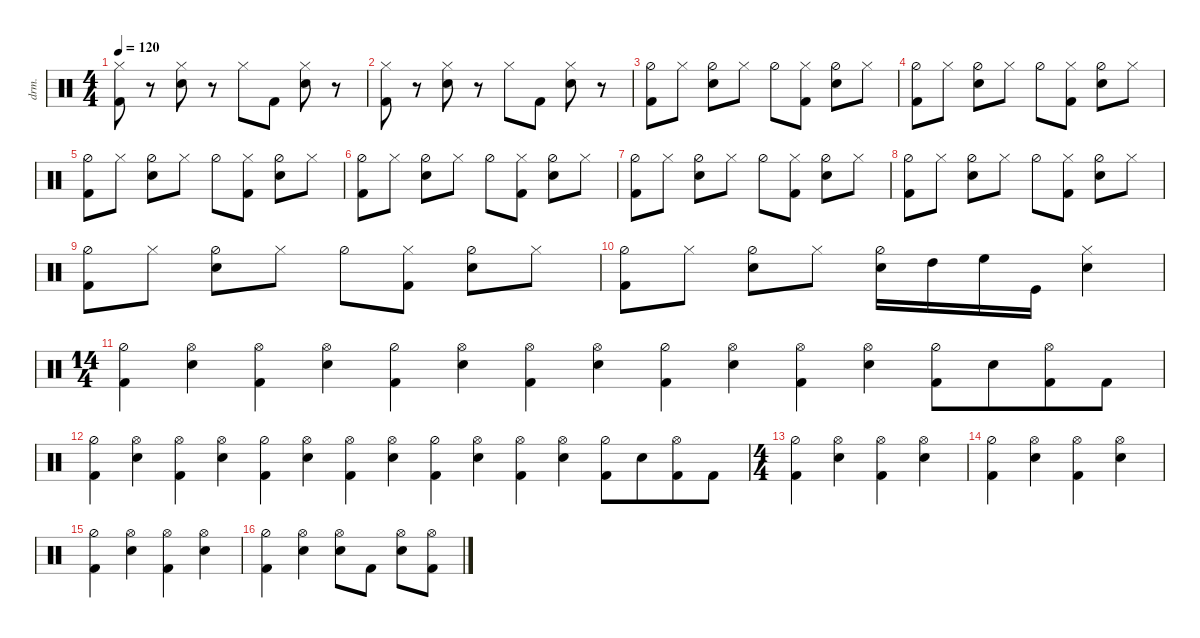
\defaultSystemsLayout 4
\hideDynamics
\bracketExtendMode nobrackets
\otherSystemsTrackNameOrientation horizontal
\track ("Drumkit" "drm.") {instrument percussion}
\staff {score}
\articulation defaults
\ts (4 4)
\tempo 120
\clef neutral
\ks c
("Kick (hit) 2" "Hi-Hat (closed)").8{dy mf beam Down} r.8{beam Down} ("Hi-Hat (closed)" "Snare (hit) 2").8{beam Down} r.8{beam Down} "Hi-Hat (closed)".8{beam Down} "Kick (hit) 2".8{beam Down} ("Hi-Hat (closed)" "Snare (hit) 2").8{beam Down} r.8{beam Down} |
("Kick (hit) 2" "Hi-Hat (closed)").8{beam Down} r.8{beam Down} ("Hi-Hat (closed)" "Snare (hit) 2").8{beam Down} r.8{beam Down} "Hi-Hat (closed)".8{beam Down} "Kick (hit) 2".8{beam Down} ("Hi-Hat (closed)" "Snare (hit) 2").8{beam Down} r.8{beam Down} |
("Kick (hit) 2" "Hi-Hat (half)").8{beam Down} "Hi-Hat (closed)".8{beam Down} ("Hi-Hat (half)" "Snare (hit) 2").8{beam Down} "Hi-Hat (closed)".8{beam Down} "Hi-Hat (half)".8{beam Down} ("Kick (hit) 2" "Hi-Hat (closed)").8{beam Down} ("Hi-Hat (half)" "Snare (hit) 2").8{beam Down} "Hi-Hat (closed)".8{beam Down} |
("Kick (hit) 2" "Hi-Hat (half)").8{beam Down} "Hi-Hat (closed)".8{beam Down} ("Hi-Hat (half)" "Snare (hit) 2").8{beam Down} "Hi-Hat (closed)".8{beam Down} "Hi-Hat (half)".8{beam Down} ("Kick (hit) 2" "Hi-Hat (closed)").8{beam Down} ("Hi-Hat (half)" "Snare (hit) 2").8{beam Down} "Hi-Hat (closed)".8{beam Down} |
("Kick (hit) 2" "Hi-Hat (half)").8{beam Down} "Hi-Hat (closed)".8{beam Down} ("Hi-Hat (half)" "Snare (hit) 2").8{beam Down} "Hi-Hat (closed)".8{beam Down} "Hi-Hat (half)".8{beam Down} ("Kick (hit) 2" "Hi-Hat (closed)").8{beam Down} ("Hi-Hat (half)" "Snare (hit) 2").8{beam Down} "Hi-Hat (closed)".8{beam Down} |
("Kick (hit) 2" "Hi-Hat (half)").8{beam Down} "Hi-Hat (closed)".8{beam Down} ("Hi-Hat (half)" "Snare (hit) 2").8{beam Down} "Hi-Hat (closed)".8{beam Down} "Hi-Hat (half)".8{beam Down} ("Kick (hit) 2" "Hi-Hat (closed)").8{beam Down} ("Hi-Hat (half)" "Snare (hit) 2").8{beam Down} "Hi-Hat (closed)".8{beam Down} |
("Kick (hit) 2" "Hi-Hat (half)").8{beam Down} "Hi-Hat (closed)".8{beam Down} ("Hi-Hat (half)" "Snare (hit) 2").8{beam Down} "Hi-Hat (closed)".8{beam Down} "Hi-Hat (half)".8{beam Down} ("Kick (hit) 2" "Hi-Hat (closed)").8{beam Down} ("Hi-Hat (half)" "Snare (hit) 2").8{beam Down} "Hi-Hat (closed)".8{beam Down} |
("Kick (hit) 2" "Hi-Hat (half)").8{beam Down} "Hi-Hat (closed)".8{beam Down} ("Hi-Hat (half)" "Snare (hit) 2").8{beam Down} "Hi-Hat (closed)".8{beam Down} "Hi-Hat (half)".8{beam Down} ("Kick (hit) 2" "Hi-Hat (closed)").8{beam Down} ("Hi-Hat (half)" "Snare (hit) 2").8{beam Down} "Hi-Hat (closed)".8{beam Down} |
("Kick (hit) 2" "Hi-Hat (half)").8{beam Down} "Hi-Hat (closed)".8{beam Down} ("Hi-Hat (half)" "Snare (hit) 2").8{beam Down} "Hi-Hat (closed)".8{beam Down} "Hi-Hat (half)".8{beam Down} ("Kick (hit) 2" "Hi-Hat (closed)").8{beam Down} ("Hi-Hat (half)" "Snare (hit) 2").8{beam Down} "Hi-Hat (closed)".8{beam Down} |
("Kick (hit) 2" "Hi-Hat (half)").8{beam Down} "Hi-Hat (closed)".8{beam Down} ("Hi-Hat (half)" "Snare (hit) 2").8{beam Down} "Hi-Hat (closed)".8{beam Down} ("Hi-Hat (half)" "Snare (hit) 2").16{beam Down} "High Tom (hit)".16{beam Down} "High Floor Tom (hit)".16{beam Down} "Kick (hit)".16{beam Down} ("Hi-Hat (closed)" "Snare (hit) 2").4{beam Down} |
\ts (14 4)
\beaming (8 4 4 4 4 4 4 4)
("Kick (hit) 2" "Hi-Hat (half)").4{beam Down} ("Snare (hit) 2" "Hi-Hat (open)").4{beam Down} ("Kick (hit) 2" "Hi-Hat (open)").4{beam Down} ("Snare (hit) 2" "Hi-Hat (open)").4{beam Down} ("Kick (hit) 2" "Hi-Hat (half)").4{beam Down} ("Snare (hit) 2" "Hi-Hat (open)").4{beam Down} ("Kick (hit) 2" "Hi-Hat (open)").4{beam Down} ("Snare (hit) 2" "Hi-Hat (open)").4{beam Down} ("Kick (hit) 2" "Hi-Hat (half)").4{beam Down} ("Snare (hit) 2" "Hi-Hat (open)").4{beam Down} ("Kick (hit) 2" "Hi-Hat (open)").4{beam Down} ("Snare (hit) 2" "Hi-Hat (open)").4{beam Down} ("Kick (hit) 2" "Hi-Hat (half)").8{beam Down} "Snare (hit) 2".8{beam Down} ("Kick (hit) 2" "Hi-Hat (open)").8{beam Down} "Kick (hit) 2".8{beam Down} |
("Kick (hit) 2" "Hi-Hat (half)").4{beam Down} ("Snare (hit) 2" "Hi-Hat (open)").4{beam Down} ("Kick (hit) 2" "Hi-Hat (open)").4{beam Down} ("Snare (hit) 2" "Hi-Hat (open)").4{beam Down} ("Kick (hit) 2" "Hi-Hat (half)").4{beam Down} ("Snare (hit) 2" "Hi-Hat (open)").4{beam Down} ("Kick (hit) 2" "Hi-Hat (open)").4{beam Down} ("Snare (hit) 2" "Hi-Hat (open)").4{beam Down} ("Kick (hit) 2" "Hi-Hat (half)").4{beam Down} ("Snare (hit) 2" "Hi-Hat (open)").4{beam Down} ("Kick (hit) 2" "Hi-Hat (open)").4{beam Down} ("Snare (hit) 2" "Hi-Hat (open)").4{beam Down} ("Kick (hit) 2" "Hi-Hat (half)").8{beam Down} "Snare (hit) 2".8{beam Down} ("Kick (hit) 2" "Hi-Hat (open)").8{beam Down} "Kick (hit) 2".8{beam Down} |
\ts (4 4)
\beaming (8 2 2 2 2)
("Kick (hit) 2" "Hi-Hat (half)").4{beam Down} ("Snare (hit) 2" "Hi-Hat (open)").4{beam Down} ("Kick (hit) 2" "Hi-Hat (open)").4{beam Down} ("Snare (hit) 2" "Hi-Hat (open)").4{beam Down} |
("Kick (hit) 2" "Hi-Hat (half)").4{beam Down} ("Snare (hit) 2" "Hi-Hat (open)").4{beam Down} ("Kick (hit) 2" "Hi-Hat (open)").4{beam Down} ("Snare (hit) 2" "Hi-Hat (open)").4{beam Down} |
("Kick (hit) 2" "Hi-Hat (half)").4{beam Down} ("Snare (hit) 2" "Hi-Hat (open)").4{beam Down} ("Kick (hit) 2" "Hi-Hat (open)").4{beam Down} ("Snare (hit) 2" "Hi-Hat (open)").4{beam Down} |
("Hi-Hat (half)" "Kick (hit) 2").4{beam Down} ("Hi-Hat (open)" "Snare (hit) 2").4{beam Down} ("Hi-Hat (open)" "Snare (hit) 2").8{beam Down} "Kick (hit) 2".8{beam Down} ("Snare (hit) 2" "Hi-Hat (open)").8{beam Down} ("Hi-Hat (open)" "Kick (hit) 2").8{beam Down}
